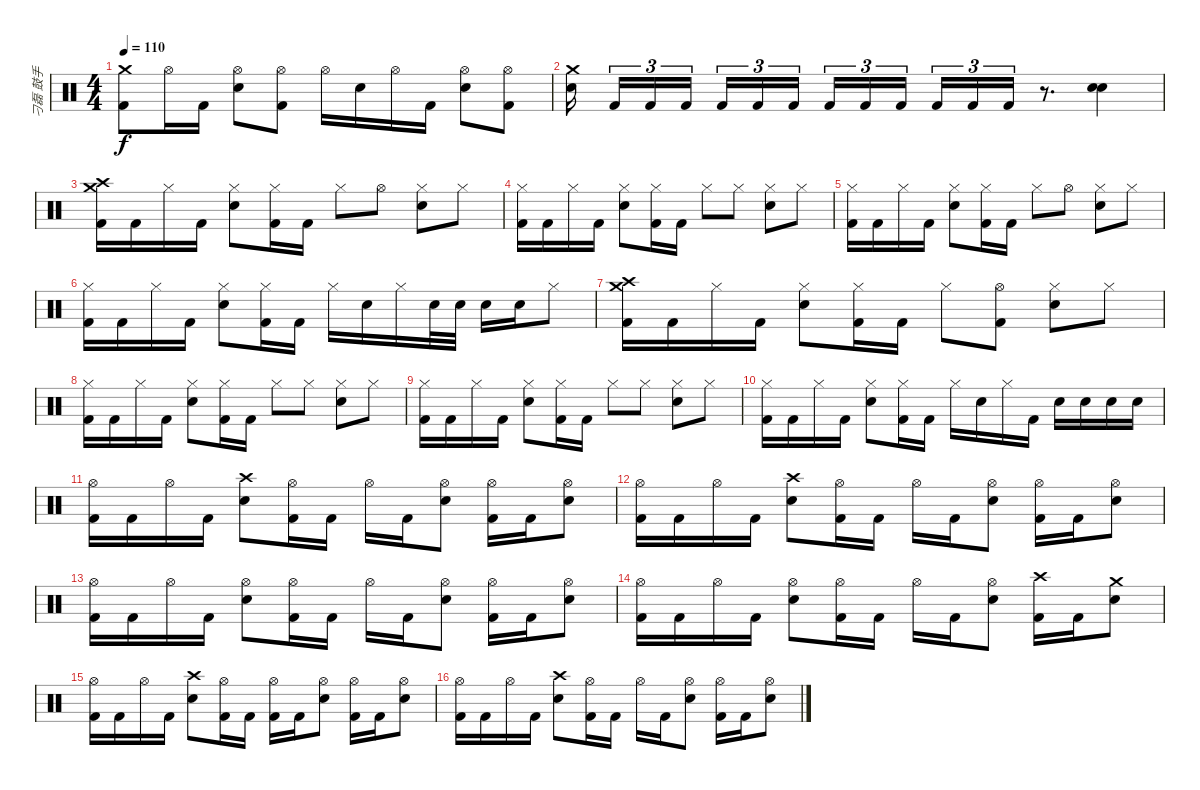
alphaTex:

\track ("刁磊 鼓手" "刁磊 鼓手") {instrument percussion}
\staff {score}
\articulation defaults
\ts (4 4)
\tempo 110
\clef neutral
\ks c
("Crash medium (hit)" "Kick (hit) 2").8{dy f} "Hi-Hat (open)".16 "Kick (hit) 2".16 ("Hi-Hat (open)" "Snare (hit) 2").8 ("Hi-Hat (open)" "Kick (hit) 2").8 "Hi-Hat (open)".16 "Snare (hit) 2".16 "Hi-Hat (open)".16 "Kick (hit) 2".16 ("Hi-Hat (open)" "Snare (hit) 2").8 ("Hi-Hat (open)" "Kick (hit) 2").8 |
("Crash medium (hit)" "Snare (hit) 2").16{beam splitsecondary} "Kick (hit) 2".16{tu (3 2)} "Kick (hit) 2".16{tu (3 2)} "Kick (hit) 2".16{tu (3 2) beam splitsecondary} "Kick (hit) 2".16{tu (3 2)} "Kick (hit) 2".16{tu (3 2)} "Kick (hit) 2".16{tu (3 2) beam splitsecondary} "Kick (hit) 2".16{tu (3 2)} "Kick (hit) 2".16{tu (3 2)} "Kick (hit) 2".16{tu (3 2) beam splitsecondary} "Kick (hit) 2".16{tu (3 2)} "Kick (hit) 2".16{tu (3 2)} "Kick (hit) 2".16{tu (3 2)} r.8{d} ("Snare (hit) 2" "Snare (hit) 2").4 |
("Crash high (hit)" "Crash medium (hit)" "Kick (hit) 2").16 "Kick (hit) 2".16 "Hi-Hat (closed)".16 "Kick (hit) 2".16 ("Hi-Hat (closed)" "Snare (hit) 2").8 ("Hi-Hat (closed)" "Kick (hit) 2").16 "Kick (hit) 2".16 "Hi-Hat (closed)".8 "Hi-Hat (open)".8 ("Hi-Hat (closed)" "Snare (hit) 2").8 "Hi-Hat (closed)".8 |
("Hi-Hat (closed)" "Kick (hit) 2").16 "Kick (hit) 2".16 "Hi-Hat (closed)".16 "Kick (hit) 2".16 ("Hi-Hat (closed)" "Snare (hit) 2").8 ("Hi-Hat (closed)" "Kick (hit) 2").16 "Kick (hit) 2".16 "Hi-Hat (closed)".8 "Hi-Hat (closed)".8 ("Hi-Hat (closed)" "Snare (hit) 2").8 "Hi-Hat (closed)".8 |
("Hi-Hat (closed)" "Kick (hit) 2").16 "Kick (hit) 2".16 "Hi-Hat (closed)".16 "Kick (hit) 2".16 ("Hi-Hat (closed)" "Snare (hit) 2").8 ("Hi-Hat (closed)" "Kick (hit) 2").16 "Kick (hit) 2".16 "Hi-Hat (closed)".8 "Hi-Hat (open)".8 ("Hi-Hat (closed)" "Snare (hit) 2").8 "Hi-Hat (closed)".8 |
("Hi-Hat (closed)" "Kick (hit) 2").16 "Kick (hit) 2".16 "Hi-Hat (closed)".16 "Kick (hit) 2".16 ("Hi-Hat (closed)" "Snare (hit) 2").8 ("Hi-Hat (closed)" "Kick (hit) 2").16 "Kick (hit) 2".16 "Hi-Hat (closed)".16 "Snare (hit) 2".16 "Hi-Hat (closed)".16 "Snare (hit) 2".32 "Snare (hit) 2".32 "Snare (hit) 2".16 "Snare (hit) 2".16 "Hi-Hat (closed)".8 |
("Crash high (hit)" "Crash medium (hit)" "Kick (hit) 2").16 "Kick (hit) 2".16 "Hi-Hat (closed)".16 "Kick (hit) 2".16 ("Hi-Hat (closed)" "Snare (hit) 2").8 ("Hi-Hat (closed)" "Kick (hit) 2").16 "Kick (hit) 2".16 "Hi-Hat (closed)".8 ("Hi-Hat (open)" "Kick (hit) 2").8 ("Hi-Hat (closed)" "Snare (hit) 2").8 "Hi-Hat (closed)".8 |
("Hi-Hat (closed)" "Kick (hit) 2").16 "Kick (hit) 2".16 "Hi-Hat (closed)".16 "Kick (hit) 2".16 ("Hi-Hat (closed)" "Snare (hit) 2").8 ("Hi-Hat (closed)" "Kick (hit) 2").16 "Kick (hit) 2".16 "Hi-Hat (closed)".8 "Hi-Hat (closed)".8 ("Hi-Hat (closed)" "Snare (hit) 2").8 "Hi-Hat (closed)".8 |
("Hi-Hat (closed)" "Kick (hit) 2").16 "Kick (hit) 2".16 "Hi-Hat (closed)".16 "Kick (hit) 2".16 ("Hi-Hat (closed)" "Snare (hit) 2").8 ("Hi-Hat (closed)" "Kick (hit) 2").16 "Kick (hit) 2".16 "Hi-Hat (closed)".8 "Hi-Hat (closed)".8 ("Hi-Hat (closed)" "Snare (hit) 2").8 "Hi-Hat (closed)".8 |
("Hi-Hat (closed)" "Kick (hit) 2").16 "Kick (hit) 2".16 "Hi-Hat (closed)".16 "Kick (hit) 2".16 ("Hi-Hat (closed)" "Snare (hit) 2").8 ("Hi-Hat (closed)" "Kick (hit) 2").16 "Kick (hit) 2".16 "Hi-Hat (closed)".16 "Snare (hit) 2".16 "Hi-Hat (closed)".16 "Kick (hit) 2".16 "Snare (hit) 2".16 "Snare (hit) 2".16 "Snare (hit) 2".16 "Snare (hit) 2".16 |
("Hi-Hat (open)" "Kick (hit) 2").16 "Kick (hit) 2".16 "Hi-Hat (open)".16 "Kick (hit) 2".16 ("Crash high (hit)" "Snare (hit) 2").8 ("Hi-Hat (open)" "Kick (hit) 2").16 "Kick (hit) 2".16 "Hi-Hat (open)".16 "Kick (hit) 2".16 ("Hi-Hat (open)" "Snare (hit) 2").8 ("Hi-Hat (open)" "Kick (hit) 2").16 "Kick (hit) 2".16 ("Hi-Hat (open)" "Snare (hit) 2").8 |
("Hi-Hat (open)" "Kick (hit) 2").16 "Kick (hit) 2".16 "Hi-Hat (open)".16 "Kick (hit) 2".16 ("Crash high (hit)" "Snare (hit) 2").8 ("Hi-Hat (open)" "Kick (hit) 2").16 "Kick (hit) 2".16 "Hi-Hat (open)".16 "Kick (hit) 2".16 ("Hi-Hat (open)" "Snare (hit) 2").8 ("Hi-Hat (open)" "Kick (hit) 2").16 "Kick (hit) 2".16 ("Hi-Hat (open)" "Snare (hit) 2").8 |
("Hi-Hat (open)" "Kick (hit) 2").16 "Kick (hit) 2".16 "Hi-Hat (open)".16 "Kick (hit) 2".16 ("Hi-Hat (open)" "Snare (hit) 2").8 ("Hi-Hat (open)" "Kick (hit) 2").16 "Kick (hit) 2".16 "Hi-Hat (open)".16 "Kick (hit) 2".16 ("Hi-Hat (open)" "Snare (hit) 2").8 ("Hi-Hat (open)" "Kick (hit) 2").16 "Kick (hit) 2".16 ("Hi-Hat (open)" "Snare (hit) 2").8 |
("Hi-Hat (open)" "Kick (hit) 2").16 "Kick (hit) 2".16 "Hi-Hat (open)".16 "Kick (hit) 2".16 ("Hi-Hat (open)" "Snare (hit) 2").8 ("Hi-Hat (open)" "Kick (hit) 2").16 "Kick (hit) 2".16 "Hi-Hat (open)".16 "Kick (hit) 2".16 ("Hi-Hat (open)" "Snare (hit) 2").8 ("Crash high (hit)" "Kick (hit) 2").16 "Kick (hit) 2".16 ("Crash medium (hit)" "Snare (hit) 2").8 |
("Hi-Hat (open)" "Kick (hit) 2").16 "Kick (hit) 2".16 "Hi-Hat (open)".16 "Kick (hit) 2".16 ("Crash high (hit)" "Snare (hit) 2").8 ("Hi-Hat (open)" "Kick (hit) 2").16 "Kick (hit) 2".16 ("Hi-Hat (open)" "Kick (hit) 2").16 "Kick (hit) 2".16 ("Hi-Hat (open)" "Snare (hit) 2").8 ("Hi-Hat (open)" "Kick (hit) 2").16 "Kick (hit) 2".16 ("Hi-Hat (open)" "Snare (hit) 2").8 |
("Hi-Hat (open)" "Kick (hit) 2").16 "Kick (hit) 2".16 "Hi-Hat (open)".16 "Kick (hit) 2".16 ("Crash high (hit)" "Snare (hit) 2").8 ("Hi-Hat (open)" "Kick (hit) 2").16 "Kick (hit) 2".16 "Hi-Hat (open)".16 "Kick (hit) 2".16 ("Hi-Hat (open)" "Snare (hit) 2").8 ("Hi-Hat (open)" "Kick (hit) 2").16 "Kick (hit) 2".16 ("Hi-Hat (open)" "Snare (hit) 2").8
